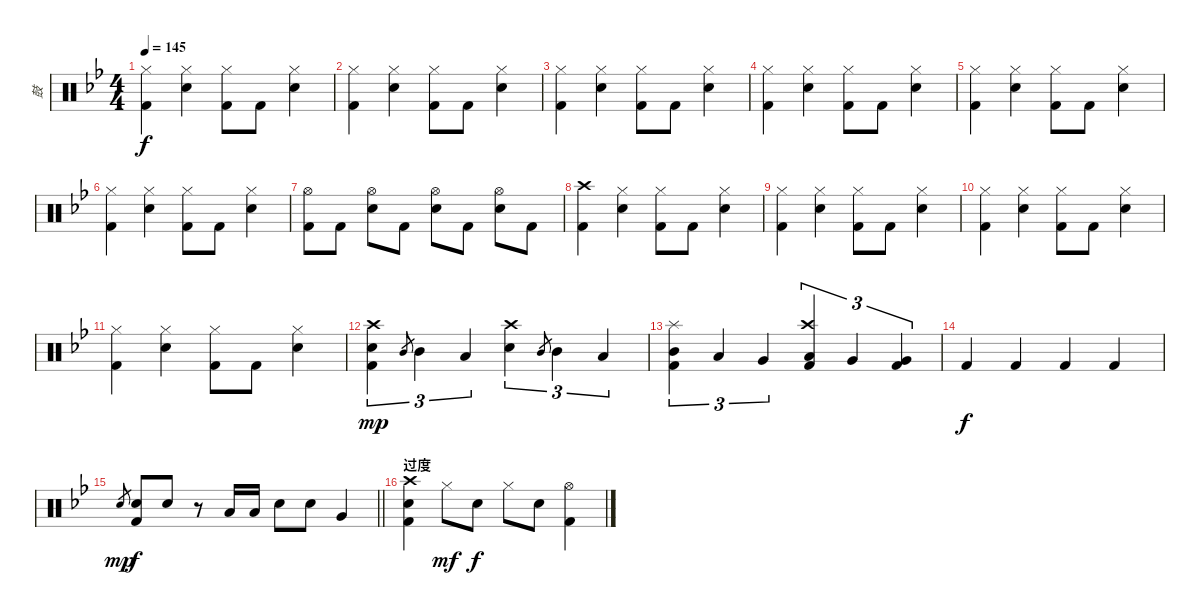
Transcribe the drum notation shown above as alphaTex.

\track ("鼓" "鼓") {instrument percussion}
\staff {score}
\articulation defaults
\ts (4 4)
\tempo 145
\clef neutral
\ks bb
("Hi-Hat (closed)" "Kick (hit) 2").4{dy f} ("Hi-Hat (closed)" "Snare (hit) 2").4 ("Hi-Hat (closed)" "Kick (hit) 2").8 "Kick (hit) 2".8 ("Hi-Hat (closed)" "Snare (hit) 2").4 |
("Hi-Hat (closed)" "Kick (hit) 2").4 ("Hi-Hat (closed)" "Snare (hit) 2").4 ("Hi-Hat (closed)" "Kick (hit) 2").8 "Kick (hit) 2".8 ("Hi-Hat (closed)" "Snare (hit) 2").4 |
("Hi-Hat (closed)" "Kick (hit) 2").4 ("Hi-Hat (closed)" "Snare (hit) 2").4 ("Hi-Hat (closed)" "Kick (hit) 2").8 "Kick (hit) 2".8 ("Hi-Hat (closed)" "Snare (hit) 2").4 |
("Hi-Hat (closed)" "Kick (hit) 2").4 ("Hi-Hat (closed)" "Snare (hit) 2").4 ("Hi-Hat (closed)" "Kick (hit) 2").8 "Kick (hit) 2".8 ("Hi-Hat (closed)" "Snare (hit) 2").4 |
("Hi-Hat (closed)" "Kick (hit) 2").4 ("Hi-Hat (closed)" "Snare (hit) 2").4 ("Hi-Hat (closed)" "Kick (hit) 2").8 "Kick (hit) 2".8 ("Hi-Hat (closed)" "Snare (hit) 2").4 |
("Hi-Hat (closed)" "Kick (hit) 2").4 ("Hi-Hat (closed)" "Snare (hit) 2").4 ("Hi-Hat (closed)" "Kick (hit) 2").8 "Kick (hit) 2".8 ("Hi-Hat (closed)" "Snare (hit) 2").4 |
("Hi-Hat (open)" "Kick (hit) 2").8 "Kick (hit) 2".8 ("Hi-Hat (open)" "Snare (hit) 2").8 "Kick (hit) 2".8 ("Hi-Hat (open)" "Snare (hit) 2").8 "Kick (hit) 2".8 ("Hi-Hat (open)" "Snare (hit) 2").8 "Kick (hit) 2".8 |
("Crash high (hit)" "Kick (hit) 2").4 ("Hi-Hat (closed)" "Snare (hit) 2").4 ("Hi-Hat (closed)" "Kick (hit) 2").8 "Kick (hit) 2".8 ("Hi-Hat (closed)" "Snare (hit) 2").4 |
("Hi-Hat (closed)" "Kick (hit) 2").4 ("Hi-Hat (closed)" "Snare (hit) 2").4 ("Hi-Hat (closed)" "Kick (hit) 2").8 "Kick (hit) 2".8 ("Hi-Hat (closed)" "Snare (hit) 2").4 |
("Hi-Hat (closed)" "Kick (hit) 2").4 ("Hi-Hat (closed)" "Snare (hit) 2").4 ("Hi-Hat (closed)" "Kick (hit) 2").8 "Kick (hit) 2".8 ("Hi-Hat (closed)" "Snare (hit) 2").4 |
("Hi-Hat (closed)" "Kick (hit) 2").4 ("Hi-Hat (closed)" "Snare (hit) 2").4 ("Hi-Hat (closed)" "Kick (hit) 2").8 "Kick (hit) 2".8 ("Hi-Hat (closed)" "Snare (hit) 2").4 |
("Crash high (hit)" "Snare (hit) 2" "Kick (hit) 2").4{tu (3 2) dy mp} "Mid Tom (hit)".8{gr} "Mid Tom (hit)".4{tu (3 2)} "Low Tom (hit)".4{tu (3 2)} ("Crash high (hit)" "Snare (hit) 2").4{tu (3 2)} "Mid Tom (hit)".8{gr} "Mid Tom (hit)".4{tu (3 2)} "Low Tom (hit)".4{tu (3 2)} |
("Splash (hit)" "Mid Tom (hit)" "Kick (hit) 2").4{tu (3 2)} "Low Tom (hit)".4{tu (3 2)} "Very Low Tom (hit)".4{tu (3 2)} ("Crash high (hit)" "Low Tom (hit)" "Kick (hit) 2").4{tu (3 2)} "Very Low Tom (hit)".4{tu (3 2)} ("Very Low Tom (hit)" "Kick (hit) 2").4{tu (3 2)} |
"Kick (hit) 2".4{dy f} "Kick (hit) 2".4 "Kick (hit) 2".4 "Kick (hit) 2".4 |
\barLineRight lightlight "Snare (hit) 2".8{gr dy mp}
("Snare (hit) 2" "Kick (hit) 2").8{dy f} "Snare (hit) 2".8 r.8 "Low Tom (hit)".16 "Low Tom (hit)".16 "Snare (hit) 2".8 "Snare (hit) 2".8 "Very Low Tom (hit)".4 |
\section ("" "过度")
("Crash high (hit)" "Snare (hit) 2" "Kick (hit) 2").4 "Hi-Hat (closed)".8{dy mf} "Snare (hit) 2".8{dy f} "Hi-Hat (closed)".8 "Snare (hit) 2".8 ("Hi-Hat (open)" "Kick (hit) 2").4
